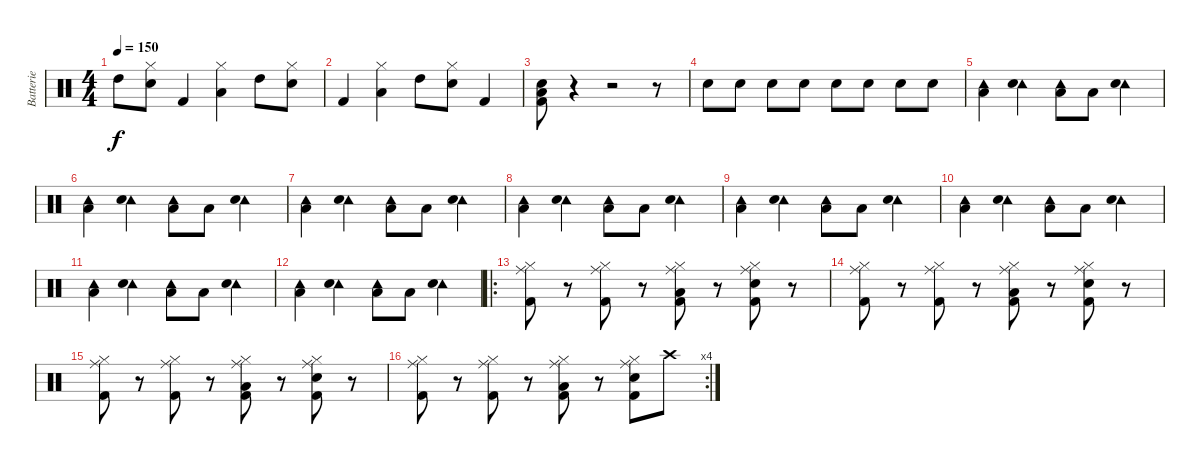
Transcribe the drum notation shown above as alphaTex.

\track ("Batterie" "Batterie") {instrument percussion}
\staff {score}
\articulation defaults
\ts (4 4)
\tempo 150
\clef neutral
\ks c "High Tom (hit)".8{dy f}
("Hi-Hat (closed)" "Snare (hit) 2").8 "Kick (hit) 2".4 ("Hi-Hat (closed)" "Low Floor Tom (hit)").4 "High Tom (hit)".8 ("Hi-Hat (closed)" "Snare (hit) 2").8 |
"Kick (hit) 2".4 ("Hi-Hat (closed)" "Low Floor Tom (hit)").4 "High Tom (hit)".8 ("Hi-Hat (closed)" "Snare (hit) 2").8 "Kick (hit) 2".4 |
("Kick (hit) 2" "Low Floor Tom (hit)" "Snare (hit) 2").8 r.4 r.2 r.8 |
"Snare (hit) 2".8 "Snare (hit) 2".8 "Snare (hit) 2".8 "Snare (hit) 2".8 "Snare (hit) 2".8 "Snare (hit) 2".8 "Snare (hit) 2".8 "Snare (hit) 2".8 |
("Tambourine (hit)" "Low Floor Tom (hit)").4 ("Tambourine (hit)" "Electric Snare (hit)").4 ("Tambourine (hit)" "Low Floor Tom (hit)").8 "Low Floor Tom (hit)".8 ("Tambourine (hit)" "Electric Snare (hit)").4 |
("Tambourine (hit)" "Low Floor Tom (hit)").4 ("Tambourine (hit)" "Electric Snare (hit)").4 ("Tambourine (hit)" "Low Floor Tom (hit)").8 "Low Floor Tom (hit)".8 ("Tambourine (hit)" "Electric Snare (hit)").4 |
("Tambourine (hit)" "Low Floor Tom (hit)").4 ("Tambourine (hit)" "Electric Snare (hit)").4 ("Tambourine (hit)" "Low Floor Tom (hit)").8 "Low Floor Tom (hit)".8 ("Tambourine (hit)" "Electric Snare (hit)").4 |
("Tambourine (hit)" "Low Floor Tom (hit)").4 ("Tambourine (hit)" "Electric Snare (hit)").4 ("Tambourine (hit)" "Low Floor Tom (hit)").8 "Low Floor Tom (hit)".8 ("Tambourine (hit)" "Electric Snare (hit)").4 |
("Tambourine (hit)" "Low Floor Tom (hit)").4 ("Tambourine (hit)" "Electric Snare (hit)").4 ("Tambourine (hit)" "Low Floor Tom (hit)").8 "Low Floor Tom (hit)".8 ("Tambourine (hit)" "Electric Snare (hit)").4 |
("Tambourine (hit)" "Low Floor Tom (hit)").4 ("Tambourine (hit)" "Electric Snare (hit)").4 ("Tambourine (hit)" "Low Floor Tom (hit)").8 "Low Floor Tom (hit)".8 ("Tambourine (hit)" "Electric Snare (hit)").4 |
("Tambourine (hit)" "Low Floor Tom (hit)").4 ("Tambourine (hit)" "Electric Snare (hit)").4 ("Tambourine (hit)" "Low Floor Tom (hit)").8 "Low Floor Tom (hit)".8 ("Tambourine (hit)" "Electric Snare (hit)").4 |
("Tambourine (hit)" "Low Floor Tom (hit)").4 ("Tambourine (hit)" "Electric Snare (hit)").4 ("Tambourine (hit)" "Low Floor Tom (hit)").8 "Low Floor Tom (hit)".8 ("Tambourine (hit)" "Electric Snare (hit)").4 |
\ro
("Ride (middle)" "Hi-Hat (closed)" "Kick (hit) 2").8 r.8 ("Ride (middle)" "Hi-Hat (closed)" "Kick (hit) 2").8 r.8 ("Ride (middle)" "Hi-Hat (closed)" "Kick (hit) 2" "Low Floor Tom (hit)").8 r.8 ("Ride (middle)" "Hi-Hat (closed)" "Snare (hit) 2" "Kick (hit) 2").8 r.8 |
("Ride (middle)" "Hi-Hat (closed)" "Kick (hit) 2").8 r.8 ("Ride (middle)" "Hi-Hat (closed)" "Kick (hit) 2").8 r.8 ("Ride (middle)" "Hi-Hat (closed)" "Kick (hit) 2" "Low Floor Tom (hit)").8 r.8 ("Ride (middle)" "Hi-Hat (closed)" "Snare (hit) 2" "Kick (hit) 2").8 r.8 |
("Ride (middle)" "Hi-Hat (closed)" "Kick (hit) 2").8 r.8 ("Ride (middle)" "Hi-Hat (closed)" "Kick (hit) 2").8 r.8 ("Ride (middle)" "Hi-Hat (closed)" "Kick (hit) 2" "Low Floor Tom (hit)").8 r.8 ("Ride (middle)" "Hi-Hat (closed)" "Snare (hit) 2" "Kick (hit) 2").8 r.8 |
\rc 4
("Ride (middle)" "Hi-Hat (closed)" "Kick (hit) 2").8 r.8 ("Ride (middle)" "Hi-Hat (closed)" "Kick (hit) 2").8 r.8 ("Ride (middle)" "Hi-Hat (closed)" "Kick (hit) 2" "Low Floor Tom (hit)").8 r.8 ("Ride (middle)" "Hi-Hat (closed)" "Snare (hit) 2" "Kick (hit) 2").8 "Crash high (hit)".8
